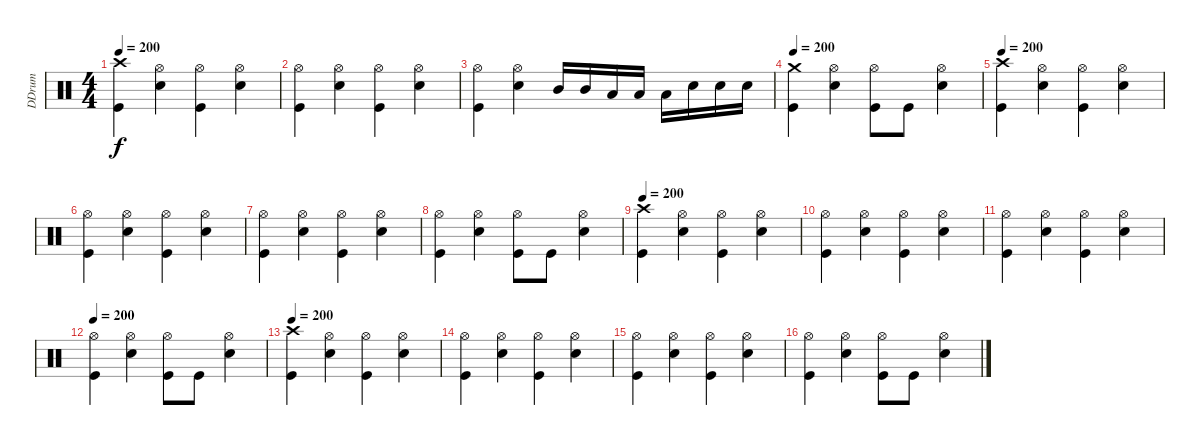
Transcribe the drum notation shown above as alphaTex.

\track ("DDrum" "DDrum") {instrument percussion}
\staff {score}
\articulation defaults
\ts (4 4)
\tempo 200
\clef neutral
\ks c
("Crash high (hit)" "Kick (hit)").4{dy f} ("Hi-Hat (open)" "Electric Snare (hit)").4 ("Hi-Hat (open)" "Kick (hit)").4 ("Hi-Hat (open)" "Electric Snare (hit)").4 |
("Hi-Hat (open)" "Kick (hit)").4 ("Hi-Hat (open)" "Electric Snare (hit)").4 ("Hi-Hat (open)" "Kick (hit)").4 ("Hi-Hat (open)" "Electric Snare (hit)").4 |
("Hi-Hat (open)" "Kick (hit)").4 ("Hi-Hat (open)" "Electric Snare (hit)").4 "Mid Tom (hit)".16 "Mid Tom (hit)".16 "Low Tom (hit)".16 "Low Tom (hit)".16 "Low Tom (hit)".16 "Electric Snare (hit)".16 "Electric Snare (hit)".16 "Electric Snare (hit)".16 |
\tempo 200
("Crash medium (hit)" "Kick (hit)").4 ("Hi-Hat (open)" "Electric Snare (hit)").4 ("Hi-Hat (open)" "Kick (hit)").8 "Kick (hit)".8 ("Hi-Hat (open)" "Electric Snare (hit)").4 |
\tempo 200
("Crash high (hit)" "Kick (hit)").4 ("Hi-Hat (open)" "Electric Snare (hit)").4 ("Hi-Hat (open)" "Kick (hit)").4 ("Hi-Hat (open)" "Electric Snare (hit)").4 |
("Hi-Hat (open)" "Kick (hit)").4 ("Hi-Hat (open)" "Electric Snare (hit)").4 ("Hi-Hat (open)" "Kick (hit)").4 ("Hi-Hat (open)" "Electric Snare (hit)").4 |
("Hi-Hat (open)" "Kick (hit)").4 ("Hi-Hat (open)" "Electric Snare (hit)").4 ("Hi-Hat (open)" "Kick (hit)").4 ("Hi-Hat (open)" "Electric Snare (hit)").4 |
("Hi-Hat (open)" "Kick (hit)").4 ("Hi-Hat (open)" "Electric Snare (hit)").4 ("Hi-Hat (open)" "Kick (hit)").8 "Kick (hit)".8 ("Hi-Hat (open)" "Electric Snare (hit)").4 |
\tempo 200
("Crash high (hit)" "Kick (hit)").4 ("Hi-Hat (open)" "Electric Snare (hit)").4 ("Hi-Hat (open)" "Kick (hit)").4 ("Hi-Hat (open)" "Electric Snare (hit)").4 |
("Hi-Hat (open)" "Kick (hit)").4 ("Hi-Hat (open)" "Electric Snare (hit)").4 ("Hi-Hat (open)" "Kick (hit)").4 ("Hi-Hat (open)" "Electric Snare (hit)").4 |
("Hi-Hat (open)" "Kick (hit)").4 ("Hi-Hat (open)" "Electric Snare (hit)").4 ("Hi-Hat (open)" "Kick (hit)").4 ("Hi-Hat (open)" "Electric Snare (hit)").4 |
\tempo 200
("Hi-Hat (open)" "Kick (hit)").4 ("Hi-Hat (open)" "Electric Snare (hit)").4 ("Hi-Hat (open)" "Kick (hit)").8 "Kick (hit)".8 ("Hi-Hat (open)" "Electric Snare (hit)").4 |
\tempo 200
("Crash high (hit)" "Kick (hit)").4 ("Hi-Hat (open)" "Electric Snare (hit)").4 ("Hi-Hat (open)" "Kick (hit)").4 ("Hi-Hat (open)" "Electric Snare (hit)").4 |
("Hi-Hat (open)" "Kick (hit)").4 ("Hi-Hat (open)" "Electric Snare (hit)").4 ("Hi-Hat (open)" "Kick (hit)").4 ("Hi-Hat (open)" "Electric Snare (hit)").4 |
("Hi-Hat (open)" "Kick (hit)").4 ("Hi-Hat (open)" "Electric Snare (hit)").4 ("Hi-Hat (open)" "Kick (hit)").4 ("Hi-Hat (open)" "Electric Snare (hit)").4 |
("Hi-Hat (open)" "Kick (hit)").4 ("Hi-Hat (open)" "Electric Snare (hit)").4 ("Hi-Hat (open)" "Kick (hit)").8 "Kick (hit)".8 ("Hi-Hat (open)" "Electric Snare (hit)").4
